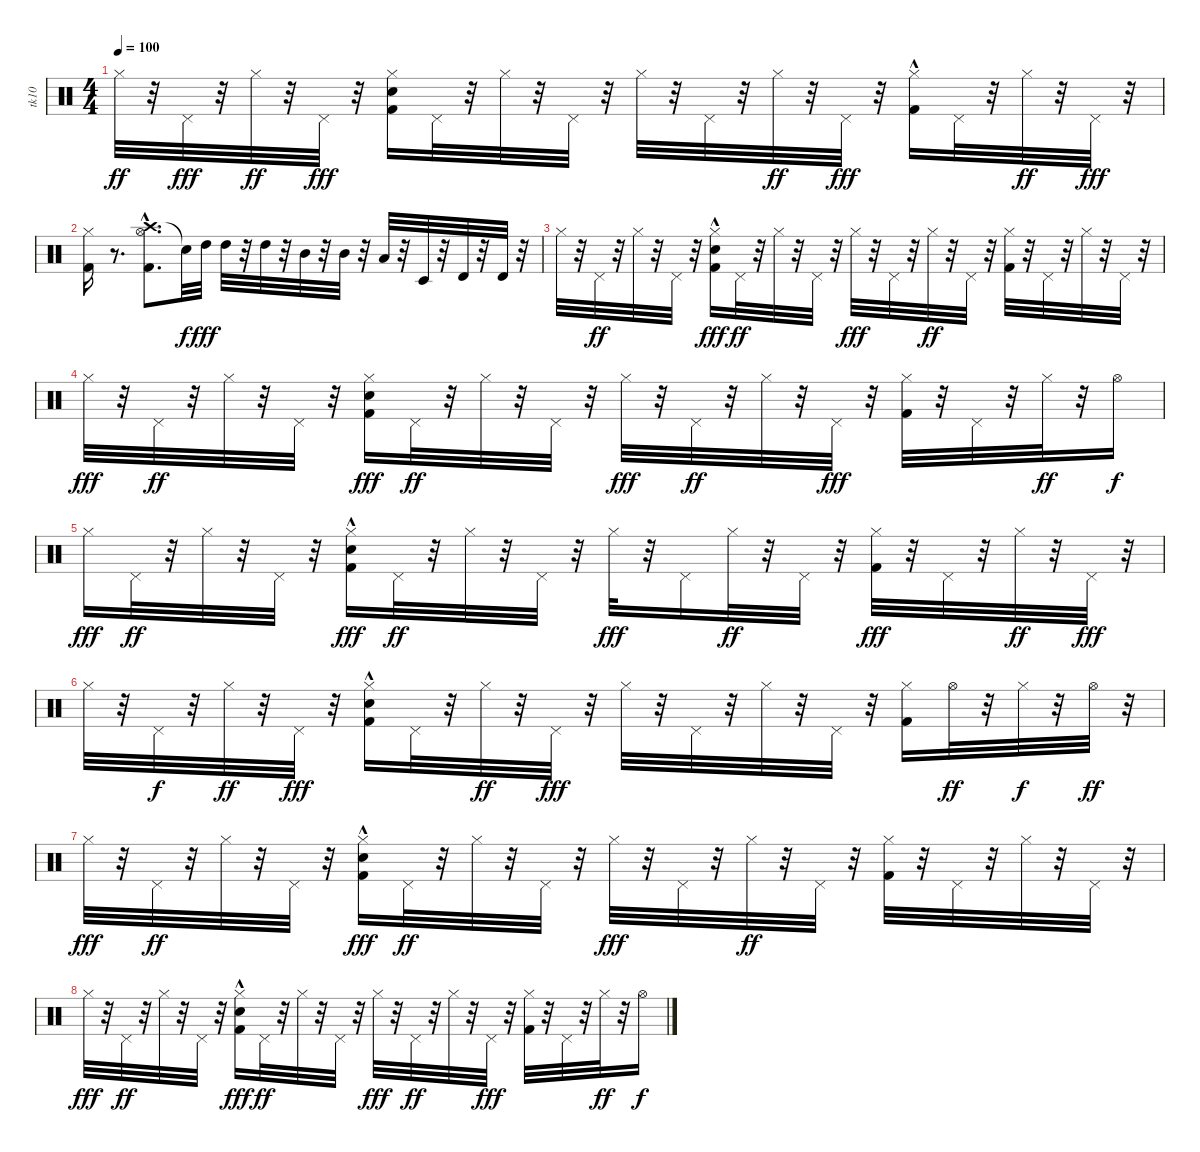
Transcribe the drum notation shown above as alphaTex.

\track ("tk10" "tk10") {instrument percussion}
\staff {score}
\articulation defaults
\ts (4 4)
\tempo 100
\clef neutral
\ks c "Hi-Hat (closed)".32{dy ff}
r.32 "Pedal Hi-Hat (hit)".32{dy fff} r.32 "Hi-Hat (closed)".32{dy ff} r.32 "Pedal Hi-Hat (hit)".32{dy fff} r.32 ("Kick (hit) 2" "Electric Snare (hit)" "Hi-Hat (closed)").16 "Pedal Hi-Hat (hit)".32 r.32 "Hi-Hat (closed)".32 r.32 "Pedal Hi-Hat (hit)".32 r.32 "Hi-Hat (closed)".32 r.32 "Pedal Hi-Hat (hit)".32 r.32 "Hi-Hat (closed)".32{dy ff} r.32 "Pedal Hi-Hat (hit)".32{dy fff} r.32 ("Hi-Hat (closed)" "Kick (hit) 2"{hac}).16 "Pedal Hi-Hat (hit)".32 r.32 "Hi-Hat (closed)".32{dy ff} r.32 "Pedal Hi-Hat (hit)".32{dy fff} r.32 |
("Hi-Hat (closed)" "Kick (hit) 2").16 r.8{d} ("Crash high (hit)"{hac} "Kick (hit) 2" "Hi-Hat (open)"{hac}).8{d} "Snare (hit)"{t}.32{dy f} "High Tom (hit)".32{dy fff} "High Tom (hit)".32 r.32 "High Tom (hit)".32 r.32 "Mid Tom (hit)".32 r.32 "Mid Tom (hit)".32 r.32 "Low Tom (hit)".32 r.32 "Timbale low (hit)".32 r.32 "Timbale high (hit)".32 r.32 "Timbale high (hit)".32 r.32 |
"Hi-Hat (closed)".32 r.32 "Pedal Hi-Hat (hit)".32{dy ff} r.32 "Hi-Hat (closed)".32 r.32 "Pedal Hi-Hat (hit)".32 r.32 ("Kick (hit) 2"{hac} "Hi-Hat (closed)" "Snare (hit) 2"{hac}).16{dy fff} "Pedal Hi-Hat (hit)".32{dy ff} r.32 "Hi-Hat (closed)".32 r.32 "Pedal Hi-Hat (hit)".32 r.32 "Hi-Hat (closed)".32{dy fff} r.32 "Pedal Hi-Hat (hit)".32 r.32 "Hi-Hat (closed)".32{dy ff} r.32 "Pedal Hi-Hat (hit)".32 r.32 ("Kick (hit) 2" "Hi-Hat (closed)").32 r.32 "Pedal Hi-Hat (hit)".32 r.32 "Hi-Hat (closed)".32 r.32 "Pedal Hi-Hat (hit)".32 r.32 |
"Hi-Hat (closed)".32{dy fff} r.32 "Pedal Hi-Hat (hit)".32{dy ff} r.32 "Hi-Hat (closed)".32 r.32 "Pedal Hi-Hat (hit)".32 r.32 ("Kick (hit) 2" "Hi-Hat (closed)" "Snare (hit) 2").16{dy fff} "Pedal Hi-Hat (hit)".32{dy ff} r.32 "Hi-Hat (closed)".32 r.32 "Pedal Hi-Hat (hit)".32 r.32 "Hi-Hat (closed)".32{dy fff} r.32 "Pedal Hi-Hat (hit)".32{dy ff} r.32 "Hi-Hat (closed)".32 r.32 "Pedal Hi-Hat (hit)".32{dy fff} r.32 ("Kick (hit) 2" "Hi-Hat (closed)").32 r.32 "Pedal Hi-Hat (hit)".32 r.32 "Hi-Hat (closed)".32{dy ff} r.32 "Hi-Hat (open)".16{dy f} |
"Hi-Hat (closed)".16{dy fff} "Pedal Hi-Hat (hit)".32{dy ff} r.32 "Hi-Hat (closed)".32 r.32 "Pedal Hi-Hat (hit)".32 r.32 ("Kick (hit) 2" "Hi-Hat (closed)" "Snare (hit) 2"{hac}).16{dy fff} "Pedal Hi-Hat (hit)".32{dy ff} r.32 "Hi-Hat (closed)".32 r.32 "Pedal Hi-Hat (hit)".32 r.32 "Hi-Hat (closed)".32{dy fff} r.32 "Pedal Hi-Hat (hit)".16 "Hi-Hat (closed)".32{dy ff} r.32 "Pedal Hi-Hat (hit)".32 r.32 ("Hi-Hat (closed)" "Kick (hit) 2").32{dy fff} r.32 "Pedal Hi-Hat (hit)".32 r.32 "Hi-Hat (closed)".32{dy ff} r.32 "Pedal Hi-Hat (hit)".32{dy fff} r.32 |
"Hi-Hat (closed)".32 r.32 "Pedal Hi-Hat (hit)".32{dy f} r.32 "Hi-Hat (closed)".32{dy ff} r.32 "Pedal Hi-Hat (hit)".32{dy fff} r.32 ("Kick (hit) 2" "Hi-Hat (closed)" "Snare (hit) 2"{hac}).16 "Pedal Hi-Hat (hit)".32 r.32 "Hi-Hat (closed)".32{dy ff} r.32 "Pedal Hi-Hat (hit)".32{dy fff} r.32 "Hi-Hat (closed)".32 r.32 "Pedal Hi-Hat (hit)".32 r.32 "Hi-Hat (closed)".32 r.32 "Pedal Hi-Hat (hit)".32 r.32 ("Hi-Hat (closed)" "Kick (hit) 2").16 "Hi-Hat (open)".32{dy ff} r.32 "Hi-Hat (closed)".32{dy f} r.32 "Hi-Hat (open)".32{dy ff} r.32 |
"Hi-Hat (closed)".32{dy fff} r.32 "Pedal Hi-Hat (hit)".32{dy ff} r.32 "Hi-Hat (closed)".32 r.32 "Pedal Hi-Hat (hit)".32 r.32 ("Snare (hit) 2"{hac} "Kick (hit) 2"{hac} "Hi-Hat (closed)").16{dy fff} "Pedal Hi-Hat (hit)".32{dy ff} r.32 "Hi-Hat (closed)".32 r.32 "Pedal Hi-Hat (hit)".32 r.32 "Hi-Hat (closed)".32{dy fff} r.32 "Pedal Hi-Hat (hit)".32 r.32 "Hi-Hat (closed)".32{dy ff} r.32 "Pedal Hi-Hat (hit)".32 r.32 ("Kick (hit) 2" "Hi-Hat (closed)").32 r.32 "Pedal Hi-Hat (hit)".32 r.32 "Hi-Hat (closed)".32 r.32 "Pedal Hi-Hat (hit)".32 r.32 |
"Hi-Hat (closed)".32{dy fff} r.32 "Pedal Hi-Hat (hit)".32{dy ff} r.32 "Hi-Hat (closed)".32 r.32 "Pedal Hi-Hat (hit)".32 r.32 ("Kick (hit) 2" "Hi-Hat (closed)" "Snare (hit) 2"{hac}).16{dy fff} "Pedal Hi-Hat (hit)".32{dy ff} r.32 "Hi-Hat (closed)".32 r.32 "Pedal Hi-Hat (hit)".32 r.32 "Hi-Hat (closed)".32{dy fff} r.32 "Pedal Hi-Hat (hit)".32{dy ff} r.32 "Hi-Hat (closed)".32 r.32 "Pedal Hi-Hat (hit)".32{dy fff} r.32 ("Kick (hit) 2" "Hi-Hat (closed)").32 r.32 "Pedal Hi-Hat (hit)".32 r.32 "Hi-Hat (closed)".32{dy ff} r.32 "Hi-Hat (open)".16{dy f}
